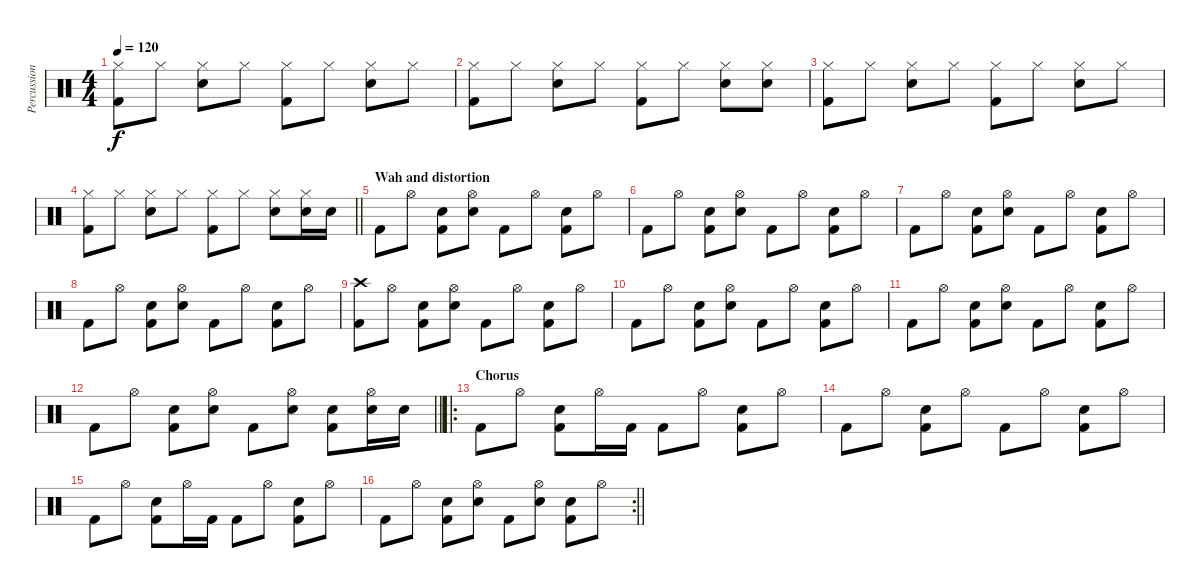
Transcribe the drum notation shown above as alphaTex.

\track ("Percussion" "Percussion") {instrument percussion}
\staff {score}
\articulation defaults
\ts (4 4)
\tempo 120
\clef neutral
\ks c
("Hi-Hat (closed)" "Kick (hit) 2").8{dy f} "Hi-Hat (closed)".8 ("Hi-Hat (closed)" "Electric Snare (hit)").8 "Hi-Hat (closed)".8 ("Hi-Hat (closed)" "Kick (hit) 2").8 "Hi-Hat (closed)".8 ("Hi-Hat (closed)" "Electric Snare (hit)").8 "Hi-Hat (closed)".8 |
("Hi-Hat (closed)" "Kick (hit) 2").8 "Hi-Hat (closed)".8 ("Hi-Hat (closed)" "Electric Snare (hit)").8 "Hi-Hat (closed)".8 ("Hi-Hat (closed)" "Kick (hit) 2").8 "Hi-Hat (closed)".8 ("Hi-Hat (closed)" "Electric Snare (hit)").8 ("Hi-Hat (closed)" "Electric Snare (hit)").8 |
("Hi-Hat (closed)" "Kick (hit) 2").8 "Hi-Hat (closed)".8 ("Hi-Hat (closed)" "Electric Snare (hit)").8 "Hi-Hat (closed)".8 ("Hi-Hat (closed)" "Kick (hit) 2").8 "Hi-Hat (closed)".8 ("Hi-Hat (closed)" "Electric Snare (hit)").8 "Hi-Hat (closed)".8 |
\barLineRight lightlight
("Hi-Hat (closed)" "Kick (hit) 2").8 "Hi-Hat (closed)".8 ("Hi-Hat (closed)" "Electric Snare (hit)").8 "Hi-Hat (closed)".8 ("Hi-Hat (closed)" "Kick (hit) 2").8 "Hi-Hat (closed)".8 ("Hi-Hat (closed)" "Electric Snare (hit)").8 ("Hi-Hat (closed)" "Electric Snare (hit)").16 "Electric Snare (hit)".16 |
\section ("" "Wah and distortion")
"Kick (hit) 2".8 "Hi-Hat (open)".8 ("Electric Snare (hit)" "Kick (hit) 2").8 ("Hi-Hat (open)" "Electric Snare (hit)").8 "Kick (hit) 2".8 "Hi-Hat (open)".8 ("Electric Snare (hit)" "Kick (hit) 2").8 "Hi-Hat (open)".8 |
"Kick (hit) 2".8 "Hi-Hat (open)".8 ("Electric Snare (hit)" "Kick (hit) 2").8 ("Hi-Hat (open)" "Electric Snare (hit)").8 "Kick (hit) 2".8 "Hi-Hat (open)".8 ("Electric Snare (hit)" "Kick (hit) 2").8 "Hi-Hat (open)".8 |
"Kick (hit) 2".8 "Hi-Hat (open)".8 ("Electric Snare (hit)" "Kick (hit) 2").8 ("Hi-Hat (open)" "Electric Snare (hit)").8 "Kick (hit) 2".8 "Hi-Hat (open)".8 ("Electric Snare (hit)" "Kick (hit) 2").8 "Hi-Hat (open)".8 |
"Kick (hit) 2".8 "Hi-Hat (open)".8 ("Electric Snare (hit)" "Kick (hit) 2").8 ("Hi-Hat (open)" "Electric Snare (hit)").8 "Kick (hit) 2".8 "Hi-Hat (open)".8 ("Electric Snare (hit)" "Kick (hit) 2").8 "Hi-Hat (open)".8 |
("Crash high (hit)" "Kick (hit) 2").8 "Hi-Hat (open)".8 ("Electric Snare (hit)" "Kick (hit) 2").8 ("Hi-Hat (open)" "Electric Snare (hit)").8 "Kick (hit) 2".8 "Hi-Hat (open)".8 ("Electric Snare (hit)" "Kick (hit) 2").8 "Hi-Hat (open)".8 |
"Kick (hit) 2".8 "Hi-Hat (open)".8 ("Electric Snare (hit)" "Kick (hit) 2").8 ("Hi-Hat (open)" "Electric Snare (hit)").8 "Kick (hit) 2".8 "Hi-Hat (open)".8 ("Electric Snare (hit)" "Kick (hit) 2").8 "Hi-Hat (open)".8 |
"Kick (hit) 2".8 "Hi-Hat (open)".8 ("Electric Snare (hit)" "Kick (hit) 2").8 ("Hi-Hat (open)" "Electric Snare (hit)").8 "Kick (hit) 2".8 "Hi-Hat (open)".8 ("Electric Snare (hit)" "Kick (hit) 2").8 "Hi-Hat (open)".8 |
\barLineRight lightlight "Kick (hit) 2".8 "Hi-Hat (open)".8
("Electric Snare (hit)" "Kick (hit) 2").8 ("Hi-Hat (open)" "Electric Snare (hit)").8 "Kick (hit) 2".8 ("Hi-Hat (open)" "Electric Snare (hit)").8 ("Electric Snare (hit)" "Kick (hit) 2").8 ("Hi-Hat (open)" "Electric Snare (hit)").16 "Electric Snare (hit)".16 |
\ro
\section ("" "Chorus")
"Kick (hit) 2".8 "Hi-Hat (open)".8 ("Electric Snare (hit)" "Kick (hit) 2").8 "Hi-Hat (open)".16 "Kick (hit) 2".16 "Kick (hit) 2".8 "Hi-Hat (open)".8 ("Electric Snare (hit)" "Kick (hit) 2").8 "Hi-Hat (open)".8 |
"Kick (hit) 2".8 "Hi-Hat (open)".8 ("Electric Snare (hit)" "Kick (hit) 2").8 "Hi-Hat (open)".8 "Kick (hit) 2".8 "Hi-Hat (open)".8 ("Electric Snare (hit)" "Kick (hit) 2").8 "Hi-Hat (open)".8 |
"Kick (hit) 2".8 "Hi-Hat (open)".8 ("Electric Snare (hit)" "Kick (hit) 2").8 "Hi-Hat (open)".16 "Kick (hit) 2".16 "Kick (hit) 2".8 "Hi-Hat (open)".8 ("Electric Snare (hit)" "Kick (hit) 2").8 "Hi-Hat (open)".8 |
\rc 2
\barLineRight lightlight "Kick (hit) 2".8 "Hi-Hat (open)".8
("Electric Snare (hit)" "Kick (hit) 2").8 ("Hi-Hat (open)" "Electric Snare (hit)").8 "Kick (hit) 2".8 ("Hi-Hat (open)" "Electric Snare (hit)").8 ("Electric Snare (hit)" "Kick (hit) 2").8 "Hi-Hat (open)".8
